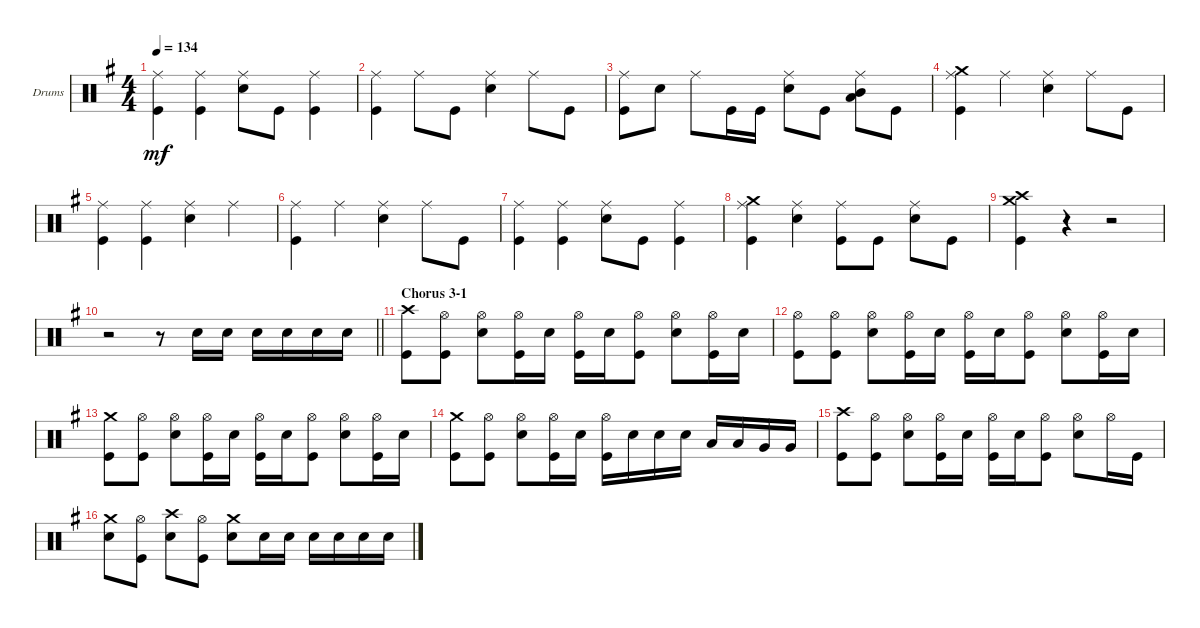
\bracketExtendMode groupsimilarinstruments
\firstSystemTrackNameOrientation horizontal
\otherSystemsTrackNameOrientation horizontal
\track ("drums (Anton Zulganov)" "Drums") {instrument percussion}
\staff {score}
\articulation defaults
\ts (4 4)
\tempo 134
\clef neutral
\ks eminor
("Ride (middle)" "Kick (hit)").4{dy mf} ("Ride (middle)" "Kick (hit)").4 ("Ride (middle)" "Snare (hit) 2").8 "Kick (hit)".8 ("Ride (middle)" "Kick (hit)").4 |
("Ride (middle)" "Kick (hit)").4 "Ride (middle)".8 "Kick (hit)".8 ("Ride (middle)" "Snare (hit) 2").4 "Ride (middle)".8 "Kick (hit)".8 |
("Ride (middle)" "Kick (hit)").8 "Snare (hit) 2".8 "Ride (middle)".8 "Kick (hit)".16 "Kick (hit)".16 ("Ride (middle)" "Snare (hit) 2").8 "Kick (hit)".8 ("Ride (middle)" "Low Tom (hit)" "Mid Tom (hit)").8 "Kick (hit)".8 |
("Ride (middle)" "Crash medium (hit)" "Kick (hit)").4 "Ride (middle)".4 ("Ride (middle)" "Snare (hit) 2").4 "Ride (middle)".8 "Kick (hit)".8 |
("Ride (middle)" "Kick (hit)").4 ("Ride (middle)" "Kick (hit)").4 ("Ride (middle)" "Snare (hit) 2").4 "Ride (middle)".4 |
("Ride (middle)" "Kick (hit)").4 "Ride (middle)".4 ("Ride (middle)" "Snare (hit) 2").4 "Ride (middle)".8 "Kick (hit)".8 |
("Ride (middle)" "Kick (hit)").4 ("Ride (middle)" "Kick (hit)").4 ("Ride (middle)" "Snare (hit) 2").8 "Kick (hit)".8 ("Ride (middle)" "Kick (hit)").4 |
("Ride (middle)" "Kick (hit)" "Crash medium (hit)").4 ("Ride (middle)" "Snare (hit) 2").4 ("Ride (middle)" "Kick (hit)").8 "Kick (hit)".8 ("Ride (middle)" "Snare (hit) 2").8 "Kick (hit)".8 |
("Crash high (hit)" "Kick (hit)" "Crash medium (hit)").4 r.4 r.2 |
\barLineRight lightlight
r.2 r.8 "Snare (hit) 2".16 "Snare (hit) 2".16 "Snare (hit) 2".16 "Snare (hit) 2".16 "Snare (hit) 2".16 "Snare (hit) 2".16 |
\section ("" "Chorus 3-1")
("Crash high (hit)" "Kick (hit)").8 ("Hi-Hat (open)" "Kick (hit)").8 ("Hi-Hat (open)" "Snare (hit) 2").8 ("Hi-Hat (open)" "Kick (hit)").16 "Snare (hit) 2".16 ("Hi-Hat (open)" "Kick (hit)").16 "Snare (hit) 2".16 ("Hi-Hat (open)" "Kick (hit)").8 ("Hi-Hat (open)" "Snare (hit) 2").8 ("Hi-Hat (open)" "Kick (hit)").16 "Snare (hit) 2".16 |
("Hi-Hat (open)" "Kick (hit)").8 ("Hi-Hat (open)" "Kick (hit)").8 ("Hi-Hat (open)" "Snare (hit) 2").8 ("Hi-Hat (open)" "Kick (hit)").16 "Snare (hit) 2".16 ("Hi-Hat (open)" "Kick (hit)").16 "Snare (hit) 2".16 ("Hi-Hat (open)" "Kick (hit)").8 ("Hi-Hat (open)" "Snare (hit) 2").8 ("Hi-Hat (open)" "Kick (hit)").16 "Snare (hit) 2".16 |
("Crash medium (hit)" "Kick (hit)").8 ("Kick (hit)" "Hi-Hat (open)").8 ("Hi-Hat (open)" "Snare (hit) 2").8 ("Hi-Hat (open)" "Kick (hit)").16 "Snare (hit) 2".16 ("Hi-Hat (open)" "Kick (hit)").16 "Snare (hit) 2".16 ("Hi-Hat (open)" "Kick (hit)").8 ("Hi-Hat (open)" "Snare (hit) 2").8 ("Hi-Hat (open)" "Kick (hit)").16 "Snare (hit) 2".16 |
("Crash medium (hit)" "Kick (hit)").8 ("Hi-Hat (open)" "Kick (hit)").8 ("Hi-Hat (open)" "Snare (hit) 2").8 ("Hi-Hat (open)" "Kick (hit)").16 "Snare (hit) 2".16 ("Hi-Hat (open)" "Kick (hit)").16 "Snare (hit) 2".16 "Snare (hit) 2".16 "Snare (hit) 2".16 "Low Tom (hit)".16 "Low Tom (hit)".16 "Very Low Tom (hit)".16 "Very Low Tom (hit)".16 |
("Crash high (hit)" "Kick (hit)").8 ("Hi-Hat (open)" "Kick (hit)").8 ("Hi-Hat (open)" "Snare (hit) 2").8 ("Hi-Hat (open)" "Kick (hit)").16 "Snare (hit) 2".16 ("Hi-Hat (open)" "Kick (hit)").16 "Snare (hit) 2".16 ("Hi-Hat (open)" "Kick (hit)").8 ("Hi-Hat (open)" "Snare (hit) 2").8 "Hi-Hat (open)".16 "Kick (hit)".16 |
("Crash medium (hit)" "Snare (hit) 2").8 ("Hi-Hat (open)" "Kick (hit)").8 ("Snare (hit) 2" "Crash high (hit)").8 ("Hi-Hat (open)" "Kick (hit)").8 ("Crash medium (hit)" "Snare (hit) 2").8 "Snare (hit) 2".16 "Snare (hit) 2".16 "Snare (hit) 2".16 "Snare (hit) 2".16 "Snare (hit) 2".16 "Snare (hit) 2".16
